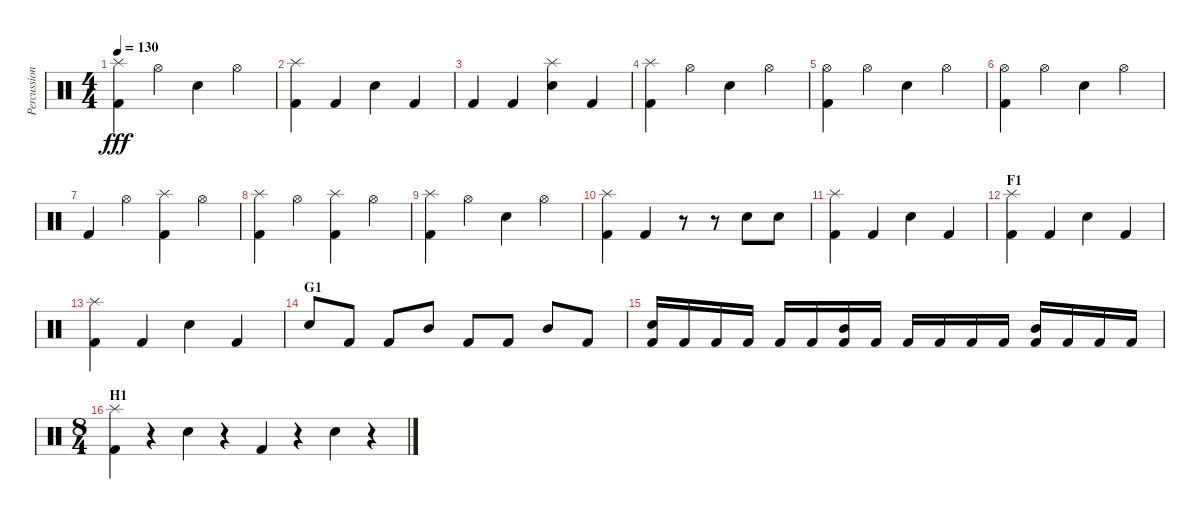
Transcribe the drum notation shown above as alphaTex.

\track ("Percussion" "Percussion") {instrument percussion}
\staff {score}
\articulation defaults
\ts (4 4)
\tempo 130
\clef neutral
\ks c
("Kick (hit) 2" "Splash (hit)").4{dy fff} "Hi-Hat (open)".4 "Electric Snare (hit)".4 "Hi-Hat (open)".4 |
("Kick (hit) 2" "Splash (hit)").4 "Kick (hit) 2".4 "Electric Snare (hit)".4 "Kick (hit) 2".4 |
"Kick (hit) 2".4 "Kick (hit) 2".4 ("Splash (hit)" "Electric Snare (hit)").4 "Kick (hit) 2".4 |
("Kick (hit) 2" "Splash (hit)").4 "Hi-Hat (open)".4 "Electric Snare (hit)".4 "Hi-Hat (open)".4 |
("Kick (hit) 2" "Hi-Hat (open)").4 "Hi-Hat (open)".4 "Electric Snare (hit)".4 "Hi-Hat (open)".4 |
("Kick (hit) 2" "Hi-Hat (open)").4 "Hi-Hat (open)".4 "Electric Snare (hit)".4 "Hi-Hat (open)".4 |
"Kick (hit) 2".4 "Hi-Hat (open)".4 ("Splash (hit)" "Kick (hit) 2").4 "Hi-Hat (open)".4 |
("Kick (hit) 2" "Splash (hit)").4 "Hi-Hat (open)".4 ("Kick (hit) 2" "Splash (hit)").4 "Hi-Hat (open)".4 |
("Kick (hit) 2" "Splash (hit)").4 "Hi-Hat (open)".4 "Electric Snare (hit)".4 "Hi-Hat (open)".4 |
("Kick (hit) 2" "Splash (hit)").4 "Kick (hit) 2".4 r.8 r.8 "Electric Snare (hit)".8 "Electric Snare (hit)".8 |
("Kick (hit) 2" "Splash (hit)").4 "Kick (hit) 2".4 "Electric Snare (hit)".4 "Kick (hit) 2".4 |
\section ("" "F1")
("Kick (hit) 2" "Splash (hit)").4 "Kick (hit) 2".4 "Electric Snare (hit)".4 "Kick (hit) 2".4 |
("Kick (hit) 2" "Splash (hit)").4 "Kick (hit) 2".4 "Electric Snare (hit)".4 "Kick (hit) 2".4 |
\section ("" "G1")
"Electric Snare (hit)".8 "Kick (hit) 2".8 "Kick (hit) 2".8 "Mid Tom (hit)".8 "Kick (hit) 2".8 "Kick (hit) 2".8 "Mid Tom (hit)".8 "Kick (hit) 2".8 |
("Kick (hit) 2" "Electric Snare (hit)").16 "Kick (hit) 2".16 "Kick (hit) 2".16 "Kick (hit) 2".16 "Kick (hit) 2".16 "Kick (hit) 2".16 ("Kick (hit) 2" "Mid Tom (hit)").16 "Kick (hit) 2".16 "Kick (hit) 2".16 "Kick (hit) 2".16 "Kick (hit) 2".16 "Kick (hit) 2".16 ("Kick (hit) 2" "Mid Tom (hit)").16 "Kick (hit) 2".16 "Kick (hit) 2".16 "Kick (hit) 2".16 |
\ts (8 4)
\section ("" "H1")
("Kick (hit) 2" "Splash (hit)").4 r.4 "Electric Snare (hit)".4 r.4 "Kick (hit) 2".4 r.4 "Electric Snare (hit)".4 r.4
